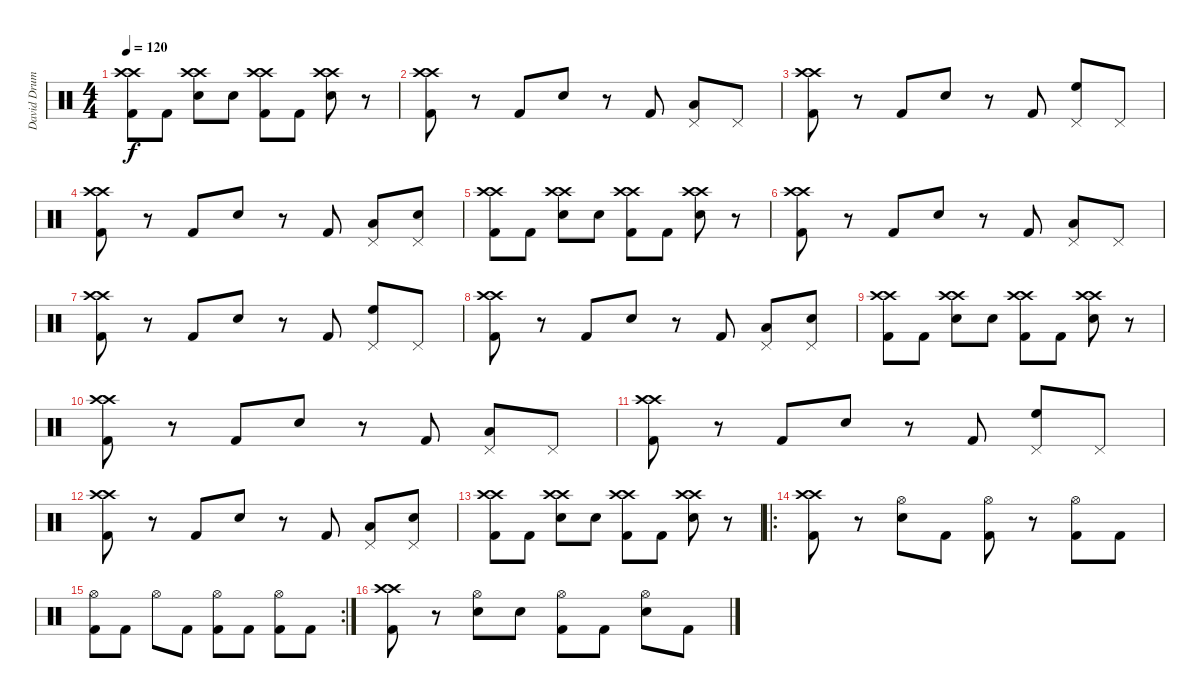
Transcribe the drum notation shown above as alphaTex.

\track ("David Drums" "David Drum") {instrument percussion}
\staff {score}
\articulation defaults
\ts (4 4)
\tempo 120
\clef neutral
\ks c
("Crash high (hit)" "Crash high (hit)" "Kick (hit) 2").8{dy f} "Kick (hit) 2".8 ("Crash high (hit)" "Crash high (hit)" "Snare (hit) 2").8 "Snare (hit) 2".8 ("Crash high (hit)" "Crash high (hit)" "Kick (hit) 2").8 "Kick (hit) 2".8 ("Crash high (hit)" "Crash high (hit)" "Snare (hit) 2").8 r.8 |
("Crash high (hit)" "Crash high (hit)" "Kick (hit) 2").8 r.8 "Kick (hit) 2".8 "Snare (hit) 2".8 r.8 "Kick (hit) 2".8 ("Low Tom (hit)" "Pedal Hi-Hat (hit)").8 "Pedal Hi-Hat (hit)".8 |
("Crash high (hit)" "Crash high (hit)" "Kick (hit) 2").8 r.8 "Kick (hit) 2".8 "Snare (hit) 2".8 r.8 "Kick (hit) 2".8 ("High Floor Tom (hit)" "Pedal Hi-Hat (hit)").8 "Pedal Hi-Hat (hit)".8 |
("Crash high (hit)" "Crash high (hit)" "Kick (hit) 2").8 r.8 "Kick (hit) 2".8 "Snare (hit) 2".8 r.8 "Kick (hit) 2".8 ("Low Tom (hit)" "Pedal Hi-Hat (hit)").8 ("Snare (hit) 2" "Pedal Hi-Hat (hit)").8 |
("Crash high (hit)" "Crash high (hit)" "Kick (hit) 2").8 "Kick (hit) 2".8 ("Crash high (hit)" "Crash high (hit)" "Snare (hit) 2").8 "Snare (hit) 2".8 ("Crash high (hit)" "Crash high (hit)" "Kick (hit) 2").8 "Kick (hit) 2".8 ("Crash high (hit)" "Crash high (hit)" "Snare (hit) 2").8 r.8 |
("Crash high (hit)" "Crash high (hit)" "Kick (hit) 2").8 r.8 "Kick (hit) 2".8 "Snare (hit) 2".8 r.8 "Kick (hit) 2".8 ("Low Tom (hit)" "Pedal Hi-Hat (hit)").8 "Pedal Hi-Hat (hit)".8 |
("Crash high (hit)" "Crash high (hit)" "Kick (hit) 2").8 r.8 "Kick (hit) 2".8 "Snare (hit) 2".8 r.8 "Kick (hit) 2".8 ("High Floor Tom (hit)" "Pedal Hi-Hat (hit)").8 "Pedal Hi-Hat (hit)".8 |
("Crash high (hit)" "Crash high (hit)" "Kick (hit) 2").8 r.8 "Kick (hit) 2".8 "Snare (hit) 2".8 r.8 "Kick (hit) 2".8 ("Low Tom (hit)" "Pedal Hi-Hat (hit)").8 ("Snare (hit) 2" "Pedal Hi-Hat (hit)").8 |
("Crash high (hit)" "Crash high (hit)" "Kick (hit) 2").8 "Kick (hit) 2".8 ("Crash high (hit)" "Crash high (hit)" "Snare (hit) 2").8 "Snare (hit) 2".8 ("Crash high (hit)" "Crash high (hit)" "Kick (hit) 2").8 "Kick (hit) 2".8 ("Crash high (hit)" "Crash high (hit)" "Snare (hit) 2").8 r.8 |
("Crash high (hit)" "Crash high (hit)" "Kick (hit) 2").8 r.8 "Kick (hit) 2".8 "Snare (hit) 2".8 r.8 "Kick (hit) 2".8 ("Low Tom (hit)" "Pedal Hi-Hat (hit)").8 "Pedal Hi-Hat (hit)".8 |
("Crash high (hit)" "Crash high (hit)" "Kick (hit) 2").8 r.8 "Kick (hit) 2".8 "Snare (hit) 2".8 r.8 "Kick (hit) 2".8 ("High Floor Tom (hit)" "Pedal Hi-Hat (hit)").8 "Pedal Hi-Hat (hit)".8 |
("Crash high (hit)" "Crash high (hit)" "Kick (hit) 2").8 r.8 "Kick (hit) 2".8 "Snare (hit) 2".8 r.8 "Kick (hit) 2".8 ("Low Tom (hit)" "Pedal Hi-Hat (hit)").8 ("Snare (hit) 2" "Pedal Hi-Hat (hit)").8 |
("Crash high (hit)" "Crash high (hit)" "Kick (hit) 2").8 "Kick (hit) 2".8 ("Crash high (hit)" "Crash high (hit)" "Snare (hit) 2").8 "Snare (hit) 2".8 ("Crash high (hit)" "Crash high (hit)" "Kick (hit) 2").8 "Kick (hit) 2".8 ("Crash high (hit)" "Crash high (hit)" "Snare (hit) 2").8 r.8 |
\ro
("Crash high (hit)" "Crash high (hit)" "Kick (hit) 2").8 r.8 ("Hi-Hat (open)" "Snare (hit) 2").8 "Kick (hit) 2".8 ("Hi-Hat (open)" "Kick (hit) 2").8 r.8 ("Hi-Hat (open)" "Kick (hit) 2").8 "Kick (hit) 2".8 |
\rc 2
("Hi-Hat (open)" "Kick (hit) 2").8 "Kick (hit) 2".8 "Hi-Hat (open)".8 "Kick (hit) 2".8 ("Hi-Hat (open)" "Kick (hit) 2").8 "Kick (hit) 2".8 ("Hi-Hat (open)" "Kick (hit) 2").8 "Kick (hit) 2".8 |
("Crash high (hit)" "Crash high (hit)" "Kick (hit) 2").8 r.8 ("Hi-Hat (open)" "Snare (hit) 2").8 "Snare (hit) 2".8 ("Hi-Hat (open)" "Kick (hit) 2").8 "Kick (hit) 2".8 ("Hi-Hat (open)" "Snare (hit) 2").8 "Kick (hit) 2".8
